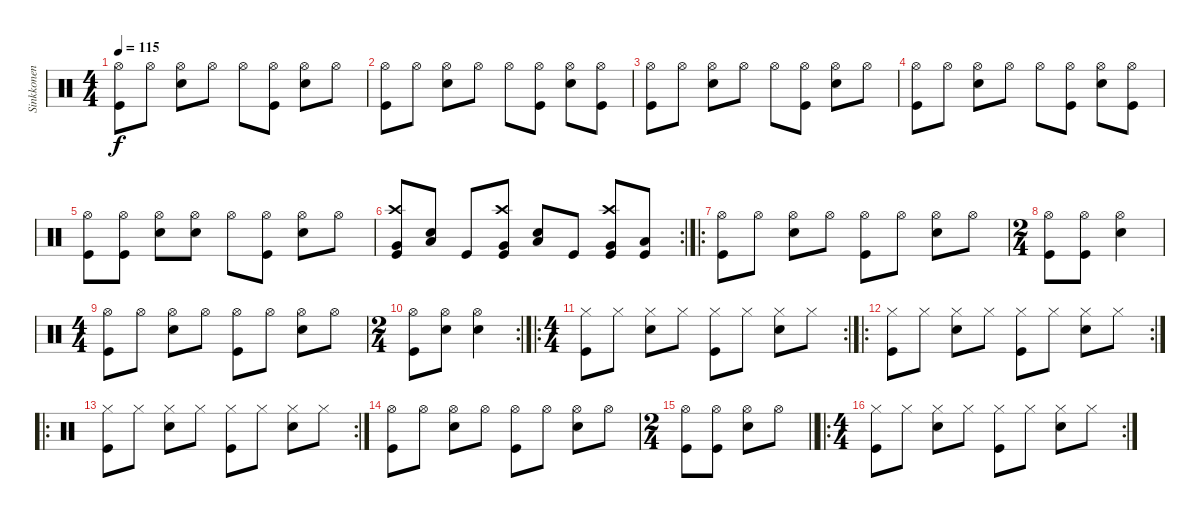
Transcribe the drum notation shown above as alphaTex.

\track ("Sinkkonen" "Sinkkonen") {instrument percussion}
\staff {score}
\articulation defaults
\ts (4 4)
\tempo 115
\clef neutral
\ks c
("Hi-Hat (open)" "Kick (hit)").8{dy f} "Hi-Hat (open)".8 ("Hi-Hat (open)" "Snare (hit) 2").8 "Hi-Hat (open)".8 "Hi-Hat (open)".8 ("Hi-Hat (open)" "Kick (hit)").8 ("Hi-Hat (open)" "Snare (hit) 2").8 "Hi-Hat (open)".8 |
("Hi-Hat (open)" "Kick (hit)").8 "Hi-Hat (open)".8 ("Hi-Hat (open)" "Snare (hit) 2").8 "Hi-Hat (open)".8 "Hi-Hat (open)".8 ("Hi-Hat (open)" "Kick (hit)").8 ("Hi-Hat (open)" "Snare (hit) 2").8 ("Hi-Hat (open)" "Kick (hit)").8 |
("Hi-Hat (open)" "Kick (hit)").8 "Hi-Hat (open)".8 ("Hi-Hat (open)" "Snare (hit) 2").8 "Hi-Hat (open)".8 "Hi-Hat (open)".8 ("Hi-Hat (open)" "Kick (hit)").8 ("Hi-Hat (open)" "Snare (hit) 2").8 "Hi-Hat (open)".8 |
("Hi-Hat (open)" "Kick (hit)").8 "Hi-Hat (open)".8 ("Hi-Hat (open)" "Snare (hit) 2").8 "Hi-Hat (open)".8 "Hi-Hat (open)".8 ("Hi-Hat (open)" "Kick (hit)").8 ("Hi-Hat (open)" "Snare (hit) 2").8 ("Hi-Hat (open)" "Kick (hit)").8 |
("Hi-Hat (open)" "Kick (hit)").8 ("Hi-Hat (open)" "Kick (hit)").8 ("Hi-Hat (open)" "Snare (hit) 2").8 ("Hi-Hat (open)" "Snare (hit) 2").8 "Hi-Hat (open)".8 ("Hi-Hat (open)" "Kick (hit)").8 ("Hi-Hat (open)" "Snare (hit) 2").8 "Hi-Hat (open)".8 |
\rc 2
("Crash high (hit)" "Very Low Tom (hit)" "Kick (hit)").8 ("Low Floor Tom (hit)" "Snare (hit) 2").8 "Kick (hit)".8 ("Crash high (hit)" "Very Low Tom (hit)" "Kick (hit)").8 ("Low Floor Tom (hit)" "Snare (hit) 2").8 "Kick (hit)".8 ("Crash high (hit)" "Very Low Tom (hit)" "Kick (hit)").8 ("Low Floor Tom (hit)" "Kick (hit)").8 |
\ro
("Hi-Hat (open)" "Kick (hit)").8 "Hi-Hat (open)".8 ("Hi-Hat (open)" "Snare (hit) 2").8 "Hi-Hat (open)".8 ("Hi-Hat (open)" "Kick (hit)").8 "Hi-Hat (open)".8 ("Hi-Hat (open)" "Snare (hit) 2").8 "Hi-Hat (open)".8 |
\ts (2 4)
("Hi-Hat (open)" "Kick (hit)").8 ("Hi-Hat (open)" "Kick (hit)").8 ("Hi-Hat (open)" "Snare (hit) 2").4 |
\ts (4 4)
("Hi-Hat (open)" "Kick (hit)").8 "Hi-Hat (open)".8 ("Hi-Hat (open)" "Snare (hit) 2").8 "Hi-Hat (open)".8 ("Hi-Hat (open)" "Kick (hit)").8 "Hi-Hat (open)".8 ("Hi-Hat (open)" "Snare (hit) 2").8 "Hi-Hat (open)".8 |
\rc 2
\ts (2 4)
("Hi-Hat (open)" "Kick (hit)").8 ("Hi-Hat (open)" "Snare (hit) 2").8 ("Hi-Hat (open)" "Snare (hit) 2").4 |
\ro
\rc 2
\ts (4 4)
("Hi-Hat (closed)" "Kick (hit)").8 "Hi-Hat (closed)".8 ("Hi-Hat (closed)" "Snare (hit) 2").8 "Hi-Hat (closed)".8 ("Hi-Hat (closed)" "Kick (hit)").8 "Hi-Hat (closed)".8 ("Hi-Hat (closed)" "Snare (hit) 2").8 "Hi-Hat (closed)".8 |
\ro
\rc 2
("Hi-Hat (closed)" "Kick (hit)").8 "Hi-Hat (closed)".8 ("Hi-Hat (closed)" "Snare (hit) 2").8 "Hi-Hat (closed)".8 ("Hi-Hat (closed)" "Kick (hit)").8 "Hi-Hat (closed)".8 ("Hi-Hat (closed)" "Snare (hit) 2").8 "Hi-Hat (closed)".8 |
\ro
\rc 2
("Hi-Hat (closed)" "Kick (hit)").8 "Hi-Hat (closed)".8 ("Hi-Hat (closed)" "Snare (hit) 2").8 "Hi-Hat (closed)".8 ("Hi-Hat (closed)" "Kick (hit)").8 "Hi-Hat (closed)".8 ("Hi-Hat (closed)" "Snare (hit) 2").8 "Hi-Hat (closed)".8 |
("Hi-Hat (open)" "Kick (hit)").8 "Hi-Hat (open)".8 ("Hi-Hat (open)" "Snare (hit) 2").8 "Hi-Hat (open)".8 ("Hi-Hat (open)" "Kick (hit)").8 "Hi-Hat (open)".8 ("Hi-Hat (open)" "Snare (hit) 2").8 "Hi-Hat (open)".8 |
\ts (2 4)
\barLineRight lightlight
("Hi-Hat (open)" "Kick (hit)").8 ("Hi-Hat (open)" "Kick (hit)").8 ("Hi-Hat (open)" "Snare (hit) 2").8 "Hi-Hat (open)".8 |
\ro
\rc 2
\ts (4 4)
("Hi-Hat (closed)" "Kick (hit)").8 "Hi-Hat (closed)".8 ("Hi-Hat (closed)" "Snare (hit) 2").8 "Hi-Hat (closed)".8 ("Hi-Hat (closed)" "Kick (hit)").8 "Hi-Hat (closed)".8 ("Hi-Hat (closed)" "Snare (hit) 2").8 "Hi-Hat (closed)".8
